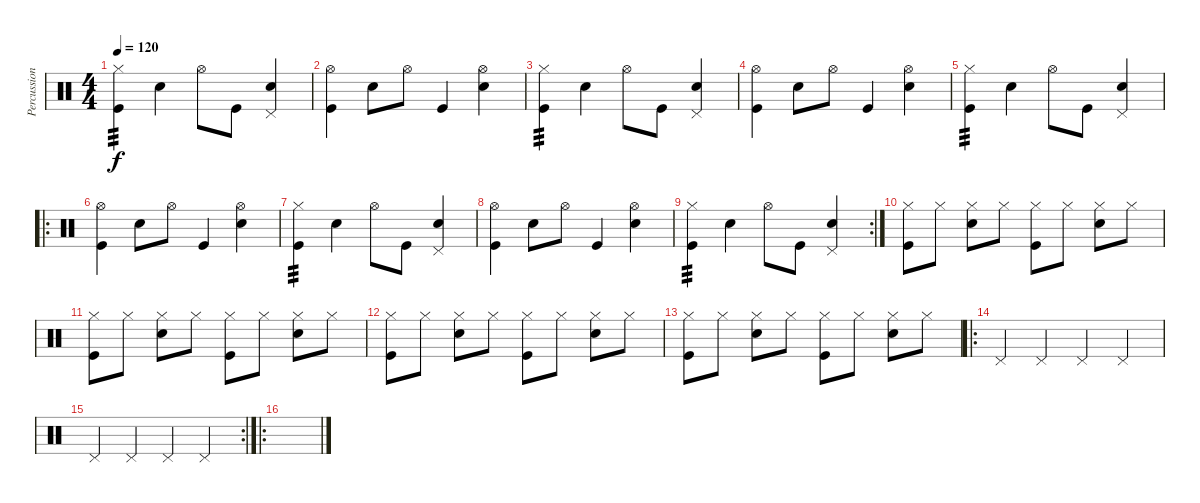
\track ("Percussion" "Percussion") {instrument percussion}
\staff {score}
\articulation defaults
\ts (4 4)
\tempo 120
\clef neutral
\ks c
("Hi-Hat (closed)" "Kick (hit)").4{tp 3 dy f} "Snare (hit) 2".4 "Hi-Hat (open)".8 "Kick (hit)".8 ("Pedal Hi-Hat (hit)" "Snare (hit) 2").4 |
("Hi-Hat (open)" "Kick (hit)").4 "Snare (hit) 2".8 "Hi-Hat (open)".8 "Kick (hit)".4 ("Hi-Hat (open)" "Snare (hit) 2").4 |
("Hi-Hat (closed)" "Kick (hit)").4{tp 3} "Snare (hit) 2".4 "Hi-Hat (open)".8 "Kick (hit)".8 ("Pedal Hi-Hat (hit)" "Snare (hit) 2").4 |
("Hi-Hat (open)" "Kick (hit)").4 "Snare (hit) 2".8 "Hi-Hat (open)".8 "Kick (hit)".4 ("Hi-Hat (open)" "Snare (hit) 2").4 |
("Hi-Hat (closed)" "Kick (hit)").4{tp 3} "Snare (hit) 2".4 "Hi-Hat (open)".8 "Kick (hit)".8 ("Pedal Hi-Hat (hit)" "Snare (hit) 2").4 |
\ro
("Hi-Hat (open)" "Kick (hit)").4 "Snare (hit) 2".8 "Hi-Hat (open)".8 "Kick (hit)".4 ("Hi-Hat (open)" "Snare (hit) 2").4 |
("Hi-Hat (closed)" "Kick (hit)").4{tp 3} "Snare (hit) 2".4 "Hi-Hat (open)".8 "Kick (hit)".8 ("Pedal Hi-Hat (hit)" "Snare (hit) 2").4 |
("Hi-Hat (open)" "Kick (hit)").4 "Snare (hit) 2".8 "Hi-Hat (open)".8 "Kick (hit)".4 ("Hi-Hat (open)" "Snare (hit) 2").4 |
\rc 2
("Hi-Hat (closed)" "Kick (hit)").4{tp 3} "Snare (hit) 2".4 "Hi-Hat (open)".8 "Kick (hit)".8 ("Pedal Hi-Hat (hit)" "Snare (hit) 2").4 |
("Hi-Hat (closed)" "Kick (hit)").8 "Hi-Hat (closed)".8 ("Hi-Hat (closed)" "Snare (hit) 2").8 "Hi-Hat (closed)".8 ("Hi-Hat (closed)" "Kick (hit)").8 "Hi-Hat (closed)".8 ("Hi-Hat (closed)" "Snare (hit) 2").8 "Hi-Hat (closed)".8 |
("Hi-Hat (closed)" "Kick (hit)").8 "Hi-Hat (closed)".8 ("Hi-Hat (closed)" "Snare (hit) 2").8 "Hi-Hat (closed)".8 ("Hi-Hat (closed)" "Kick (hit)").8 "Hi-Hat (closed)".8 ("Hi-Hat (closed)" "Snare (hit) 2").8 "Hi-Hat (closed)".8 |
("Hi-Hat (closed)" "Kick (hit)").8 "Hi-Hat (closed)".8 ("Hi-Hat (closed)" "Snare (hit) 2").8 "Hi-Hat (closed)".8 ("Hi-Hat (closed)" "Kick (hit)").8 "Hi-Hat (closed)".8 ("Hi-Hat (closed)" "Snare (hit) 2").8 "Hi-Hat (closed)".8 |
("Hi-Hat (closed)" "Kick (hit)").8 "Hi-Hat (closed)".8 ("Hi-Hat (closed)" "Snare (hit) 2").8 "Hi-Hat (closed)".8 ("Hi-Hat (closed)" "Kick (hit)").8 "Hi-Hat (closed)".8 ("Hi-Hat (closed)" "Snare (hit) 2").8 "Hi-Hat (closed)".8 |
\ro "Pedal Hi-Hat (hit)".4 "Pedal Hi-Hat (hit)".4 "Pedal Hi-Hat (hit)".4 "Pedal Hi-Hat (hit)".4
|
\rc 2 "Pedal Hi-Hat (hit)".4 "Pedal Hi-Hat (hit)".4 "Pedal Hi-Hat (hit)".4 "Pedal Hi-Hat (hit)".4
|
\ro
